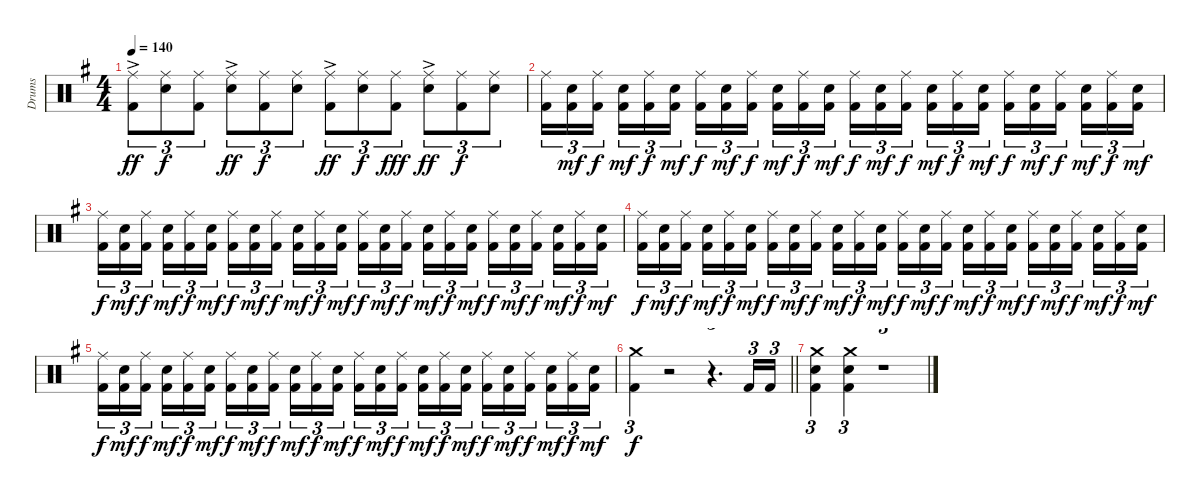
\track ("Drums" "Drums") {instrument percussion}
\staff {score}
\articulation defaults
\ts (4 4)
\tempo 140
\clef neutral
\ks eminor
("Kick (hit) 2" "Ride (middle)"{ac}).8{tu (3 2) dy ff} ("Electric Snare (hit)" "Ride (middle)").8{tu (3 2) dy f} ("Kick (hit) 2" "Ride (middle)").8{tu (3 2)} ("Electric Snare (hit)" "Ride (middle)"{ac}).8{tu (3 2) dy ff} ("Kick (hit) 2" "Ride (middle)").8{tu (3 2) dy f} ("Electric Snare (hit)" "Ride (middle)").8{tu (3 2)} ("Kick (hit) 2" "Ride (middle)"{ac}).8{tu (3 2) dy ff} ("Electric Snare (hit)" "Ride (middle)").8{tu (3 2) dy f} ("Kick (hit) 2" "Ride (middle)").8{tu (3 2) dy fff} ("Electric Snare (hit)" "Ride (middle)"{ac}).8{tu (3 2) dy ff} ("Kick (hit) 2" "Ride (middle)").8{tu (3 2) dy f} ("Electric Snare (hit)" "Ride (middle)").8{tu (3 2)} |
("Ride (middle)" "Kick (hit) 2").16{tu (3 2)} ("Electric Snare (hit)" "Kick (hit) 2").16{tu (3 2) dy mf} ("Ride (middle)" "Kick (hit) 2").16{tu (3 2) dy f beam splitsecondary} ("Electric Snare (hit)" "Kick (hit) 2").16{tu (3 2) dy mf} ("Ride (middle)" "Kick (hit) 2").16{tu (3 2) dy f} ("Electric Snare (hit)" "Kick (hit) 2").16{tu (3 2) dy mf} ("Ride (middle)" "Kick (hit) 2").16{tu (3 2) dy f} ("Electric Snare (hit)" "Kick (hit) 2").16{tu (3 2) dy mf} ("Ride (middle)" "Kick (hit) 2").16{tu (3 2) dy f beam splitsecondary} ("Electric Snare (hit)" "Kick (hit) 2").16{tu (3 2) dy mf} ("Ride (middle)" "Kick (hit) 2").16{tu (3 2) dy f} ("Electric Snare (hit)" "Kick (hit) 2").16{tu (3 2) dy mf} ("Ride (middle)" "Kick (hit) 2").16{tu (3 2) dy f} ("Electric Snare (hit)" "Kick (hit) 2").16{tu (3 2) dy mf} ("Ride (middle)" "Kick (hit) 2").16{tu (3 2) dy f beam splitsecondary} ("Electric Snare (hit)" "Kick (hit) 2").16{tu (3 2) dy mf} ("Ride (middle)" "Kick (hit) 2").16{tu (3 2) dy f} ("Electric Snare (hit)" "Kick (hit) 2").16{tu (3 2) dy mf} ("Ride (middle)" "Kick (hit) 2").16{tu (3 2) dy f} ("Electric Snare (hit)" "Kick (hit) 2").16{tu (3 2) dy mf} ("Ride (middle)" "Kick (hit) 2").16{tu (3 2) dy f beam splitsecondary} ("Electric Snare (hit)" "Kick (hit) 2").16{tu (3 2) dy mf} ("Ride (middle)" "Kick (hit) 2").16{tu (3 2) dy f} ("Electric Snare (hit)" "Kick (hit) 2").16{tu (3 2) dy mf} |
("Ride (middle)" "Kick (hit) 2").16{tu (3 2) dy f} ("Electric Snare (hit)" "Kick (hit) 2").16{tu (3 2) dy mf} ("Ride (middle)" "Kick (hit) 2").16{tu (3 2) dy f beam splitsecondary} ("Electric Snare (hit)" "Kick (hit) 2").16{tu (3 2) dy mf} ("Ride (middle)" "Kick (hit) 2").16{tu (3 2) dy f} ("Electric Snare (hit)" "Kick (hit) 2").16{tu (3 2) dy mf} ("Ride (middle)" "Kick (hit) 2").16{tu (3 2) dy f} ("Electric Snare (hit)" "Kick (hit) 2").16{tu (3 2) dy mf} ("Ride (middle)" "Kick (hit) 2").16{tu (3 2) dy f beam splitsecondary} ("Electric Snare (hit)" "Kick (hit) 2").16{tu (3 2) dy mf} ("Ride (middle)" "Kick (hit) 2").16{tu (3 2) dy f} ("Electric Snare (hit)" "Kick (hit) 2").16{tu (3 2) dy mf} ("Ride (middle)" "Kick (hit) 2").16{tu (3 2) dy f} ("Electric Snare (hit)" "Kick (hit) 2").16{tu (3 2) dy mf} ("Ride (middle)" "Kick (hit) 2").16{tu (3 2) dy f beam splitsecondary} ("Electric Snare (hit)" "Kick (hit) 2").16{tu (3 2) dy mf} ("Ride (middle)" "Kick (hit) 2").16{tu (3 2) dy f} ("Electric Snare (hit)" "Kick (hit) 2").16{tu (3 2) dy mf} ("Ride (middle)" "Kick (hit) 2").16{tu (3 2) dy f} ("Electric Snare (hit)" "Kick (hit) 2").16{tu (3 2) dy mf} ("Ride (middle)" "Kick (hit) 2").16{tu (3 2) dy f beam splitsecondary} ("Electric Snare (hit)" "Kick (hit) 2").16{tu (3 2) dy mf} ("Ride (middle)" "Kick (hit) 2").16{tu (3 2) dy f} ("Electric Snare (hit)" "Kick (hit) 2").16{tu (3 2) dy mf} |
("Ride (middle)" "Kick (hit) 2").16{tu (3 2) dy f} ("Electric Snare (hit)" "Kick (hit) 2").16{tu (3 2) dy mf} ("Ride (middle)" "Kick (hit) 2").16{tu (3 2) dy f beam splitsecondary} ("Electric Snare (hit)" "Kick (hit) 2").16{tu (3 2) dy mf} ("Ride (middle)" "Kick (hit) 2").16{tu (3 2) dy f} ("Electric Snare (hit)" "Kick (hit) 2").16{tu (3 2) dy mf} ("Ride (middle)" "Kick (hit) 2").16{tu (3 2) dy f} ("Electric Snare (hit)" "Kick (hit) 2").16{tu (3 2) dy mf} ("Ride (middle)" "Kick (hit) 2").16{tu (3 2) dy f beam splitsecondary} ("Electric Snare (hit)" "Kick (hit) 2").16{tu (3 2) dy mf} ("Ride (middle)" "Kick (hit) 2").16{tu (3 2) dy f} ("Electric Snare (hit)" "Kick (hit) 2").16{tu (3 2) dy mf} ("Ride (middle)" "Kick (hit) 2").16{tu (3 2) dy f} ("Electric Snare (hit)" "Kick (hit) 2").16{tu (3 2) dy mf} ("Ride (middle)" "Kick (hit) 2").16{tu (3 2) dy f beam splitsecondary} ("Electric Snare (hit)" "Kick (hit) 2").16{tu (3 2) dy mf} ("Ride (middle)" "Kick (hit) 2").16{tu (3 2) dy f} ("Electric Snare (hit)" "Kick (hit) 2").16{tu (3 2) dy mf} ("Ride (middle)" "Kick (hit) 2").16{tu (3 2) dy f} ("Electric Snare (hit)" "Kick (hit) 2").16{tu (3 2) dy mf} ("Ride (middle)" "Kick (hit) 2").16{tu (3 2) dy f beam splitsecondary} ("Electric Snare (hit)" "Kick (hit) 2").16{tu (3 2) dy mf} ("Ride (middle)" "Kick (hit) 2").16{tu (3 2) dy f} ("Electric Snare (hit)" "Kick (hit) 2").16{tu (3 2) dy mf} |
("Ride (middle)" "Kick (hit) 2").16{tu (3 2) dy f} ("Electric Snare (hit)" "Kick (hit) 2").16{tu (3 2) dy mf} ("Ride (middle)" "Kick (hit) 2").16{tu (3 2) dy f beam splitsecondary} ("Electric Snare (hit)" "Kick (hit) 2").16{tu (3 2) dy mf} ("Ride (middle)" "Kick (hit) 2").16{tu (3 2) dy f} ("Electric Snare (hit)" "Kick (hit) 2").16{tu (3 2) dy mf} ("Ride (middle)" "Kick (hit) 2").16{tu (3 2) dy f} ("Electric Snare (hit)" "Kick (hit) 2").16{tu (3 2) dy mf} ("Ride (middle)" "Kick (hit) 2").16{tu (3 2) dy f beam splitsecondary} ("Electric Snare (hit)" "Kick (hit) 2").16{tu (3 2) dy mf} ("Ride (middle)" "Kick (hit) 2").16{tu (3 2) dy f} ("Electric Snare (hit)" "Kick (hit) 2").16{tu (3 2) dy mf} ("Ride (middle)" "Kick (hit) 2").16{tu (3 2) dy f} ("Electric Snare (hit)" "Kick (hit) 2").16{tu (3 2) dy mf} ("Ride (middle)" "Kick (hit) 2").16{tu (3 2) dy f beam splitsecondary} ("Electric Snare (hit)" "Kick (hit) 2").16{tu (3 2) dy mf} ("Ride (middle)" "Kick (hit) 2").16{tu (3 2) dy f} ("Electric Snare (hit)" "Kick (hit) 2").16{tu (3 2) dy mf} ("Ride (middle)" "Kick (hit) 2").16{tu (3 2) dy f} ("Electric Snare (hit)" "Kick (hit) 2").16{tu (3 2) dy mf} ("Ride (middle)" "Kick (hit) 2").16{tu (3 2) dy f beam splitsecondary} ("Electric Snare (hit)" "Kick (hit) 2").16{tu (3 2) dy mf} ("Ride (middle)" "Kick (hit) 2").16{tu (3 2) dy f} ("Electric Snare (hit)" "Kick (hit) 2").16{tu (3 2) dy mf} |
\barLineRight lightlight
("Crash medium (hit)" "Kick (hit) 2").4{tu (3 2) dy f} r.2 r.4{d tu (3 2)} "Kick (hit) 2".16{tu (3 2)} "Kick (hit) 2".16{tu (3 2)} |
("Crash medium (hit)" "Electric Snare (hit)" "Kick (hit) 2").4{tu (3 2)} ("Crash medium (hit)" "Electric Snare (hit)" "Kick (hit) 2").4{tu (3 2)} r.1{tu (3 2)}
